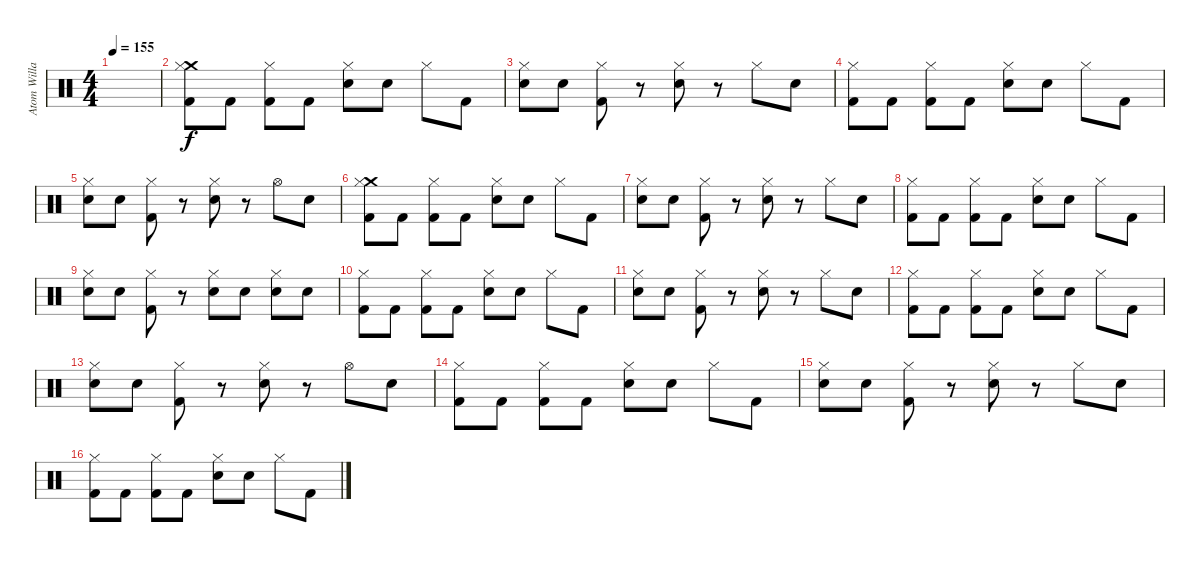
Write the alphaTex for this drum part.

\track ("Atom Willard Drums" "Atom Willa") {instrument percussion}
\staff {score}
\articulation defaults
\ts (4 4)
\tempo 155
\clef neutral
\ks c
|
("Crash medium (hit)" "Kick (hit) 2" "Hi-Hat (closed)").8 "Kick (hit) 2".8 ("Kick (hit) 2" "Hi-Hat (closed)").8 "Kick (hit) 2".8 ("Electric Snare (hit)" "Hi-Hat (closed)").8 "Snare (hit)".8 "Hi-Hat (closed)".8 "Kick (hit) 2".8 |
("Snare (hit)" "Hi-Hat (closed)").8 "Electric Snare (hit)".8 ("Kick (hit) 2" "Hi-Hat (closed)").8 r.8 ("Electric Snare (hit)" "Hi-Hat (closed)").8 r.8 "Hi-Hat (closed)".8 "Snare (hit)".8 |
("Kick (hit) 2" "Hi-Hat (closed)").8 "Kick (hit) 2".8 ("Kick (hit) 2" "Hi-Hat (closed)").8 "Kick (hit) 2".8 ("Electric Snare (hit)" "Hi-Hat (closed)").8 "Snare (hit)".8 "Hi-Hat (closed)".8 "Kick (hit) 2".8 |
("Snare (hit)" "Hi-Hat (closed)").8 "Electric Snare (hit)".8 ("Kick (hit) 2" "Hi-Hat (closed)").8 r.8 ("Electric Snare (hit)" "Hi-Hat (closed)").8 r.8 "Hi-Hat (open)".8 "Snare (hit)".8 |
("Crash medium (hit)" "Kick (hit) 2" "Hi-Hat (closed)").8 "Kick (hit) 2".8 ("Kick (hit) 2" "Hi-Hat (closed)").8 "Kick (hit) 2".8 ("Electric Snare (hit)" "Hi-Hat (closed)").8 "Snare (hit)".8 "Hi-Hat (closed)".8 "Kick (hit) 2".8 |
("Snare (hit)" "Hi-Hat (closed)").8 "Electric Snare (hit)".8 ("Kick (hit) 2" "Hi-Hat (closed)").8 r.8 ("Electric Snare (hit)" "Hi-Hat (closed)").8 r.8 "Hi-Hat (closed)".8 "Snare (hit)".8 |
("Kick (hit) 2" "Hi-Hat (closed)").8 "Kick (hit) 2".8 ("Kick (hit) 2" "Hi-Hat (closed)").8 "Kick (hit) 2".8 ("Electric Snare (hit)" "Hi-Hat (closed)").8 "Snare (hit)".8 "Hi-Hat (closed)".8 "Kick (hit) 2".8 |
("Snare (hit)" "Hi-Hat (closed)").8 "Electric Snare (hit)".8 ("Kick (hit) 2" "Hi-Hat (closed)").8 r.8 ("Electric Snare (hit)" "Hi-Hat (closed)").8 "Electric Snare (hit)".8 ("Electric Snare (hit)" "Hi-Hat (closed)").8 "Snare (hit)".8 |
("Kick (hit) 2" "Hi-Hat (closed)").8 "Kick (hit) 2".8 ("Kick (hit) 2" "Hi-Hat (closed)").8 "Kick (hit) 2".8 ("Electric Snare (hit)" "Hi-Hat (closed)").8 "Snare (hit)".8 "Hi-Hat (closed)".8 "Kick (hit) 2".8 |
("Snare (hit)" "Hi-Hat (closed)").8 "Electric Snare (hit)".8 ("Kick (hit) 2" "Hi-Hat (closed)").8 r.8 ("Electric Snare (hit)" "Hi-Hat (closed)").8 r.8 "Hi-Hat (closed)".8 "Snare (hit)".8 |
("Kick (hit) 2" "Hi-Hat (closed)").8 "Kick (hit) 2".8 ("Kick (hit) 2" "Hi-Hat (closed)").8 "Kick (hit) 2".8 ("Electric Snare (hit)" "Hi-Hat (closed)").8 "Snare (hit)".8 "Hi-Hat (closed)".8 "Kick (hit) 2".8 |
("Snare (hit)" "Hi-Hat (closed)").8 "Electric Snare (hit)".8 ("Kick (hit) 2" "Hi-Hat (closed)").8 r.8 ("Electric Snare (hit)" "Hi-Hat (closed)").8 r.8 "Hi-Hat (open)".8 "Snare (hit)".8 |
("Kick (hit) 2" "Hi-Hat (closed)").8 "Kick (hit) 2".8 ("Kick (hit) 2" "Hi-Hat (closed)").8 "Kick (hit) 2".8 ("Electric Snare (hit)" "Hi-Hat (closed)").8 "Snare (hit)".8 "Hi-Hat (closed)".8 "Kick (hit) 2".8 |
("Snare (hit)" "Hi-Hat (closed)").8 "Electric Snare (hit)".8 ("Kick (hit) 2" "Hi-Hat (closed)").8 r.8 ("Electric Snare (hit)" "Hi-Hat (closed)").8 r.8 "Hi-Hat (closed)".8 "Snare (hit)".8 |
("Kick (hit) 2" "Hi-Hat (closed)").8 "Kick (hit) 2".8 ("Kick (hit) 2" "Hi-Hat (closed)").8 "Kick (hit) 2".8 ("Electric Snare (hit)" "Hi-Hat (closed)").8 "Snare (hit)".8 "Hi-Hat (closed)".8 "Kick (hit) 2".8
